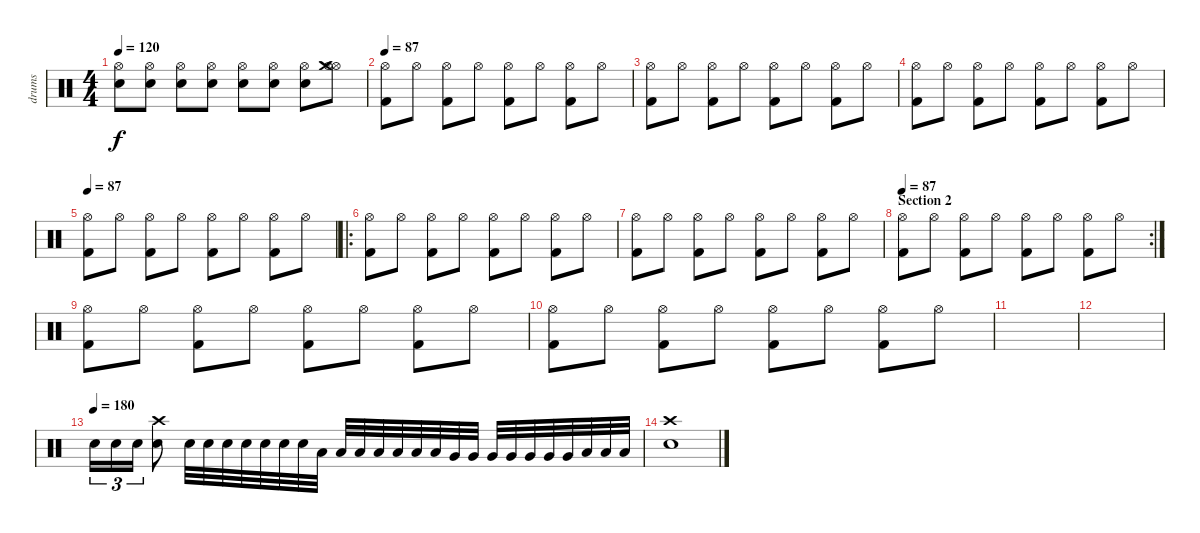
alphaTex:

\track ("drums" "drums") {instrument percussion}
\staff {score}
\articulation defaults
\ts (4 4)
\tempo 120
\clef neutral
\ks c
("Electric Snare (hit)" "Hi-Hat (open)").8{dy f volume 16} ("Electric Snare (hit)" "Hi-Hat (open)").8 ("Electric Snare (hit)" "Hi-Hat (open)").8 ("Electric Snare (hit)" "Hi-Hat (open)").8 ("Electric Snare (hit)" "Hi-Hat (open)").8 ("Electric Snare (hit)" "Hi-Hat (open)").8 ("Electric Snare (hit)" "Hi-Hat (open)").8 ("Hi-Hat (open)" "Hi-Hat (open)" "Crash medium (hit)").8 |
\tempo 87
("Hi-Hat (open)" "Kick (hit) 2").8 "Hi-Hat (open)".8 ("Hi-Hat (open)" "Kick (hit) 2").8 "Hi-Hat (open)".8 ("Hi-Hat (open)" "Kick (hit) 2").8 "Hi-Hat (open)".8 ("Hi-Hat (open)" "Kick (hit) 2").8 "Hi-Hat (open)".8 |
("Hi-Hat (open)" "Kick (hit) 2").8 "Hi-Hat (open)".8 ("Hi-Hat (open)" "Kick (hit) 2").8 "Hi-Hat (open)".8 ("Hi-Hat (open)" "Kick (hit) 2").8 "Hi-Hat (open)".8 ("Hi-Hat (open)" "Kick (hit) 2").8 "Hi-Hat (open)".8 |
("Hi-Hat (open)" "Kick (hit) 2").8 "Hi-Hat (open)".8 ("Hi-Hat (open)" "Kick (hit) 2").8 "Hi-Hat (open)".8 ("Hi-Hat (open)" "Kick (hit) 2").8 "Hi-Hat (open)".8 ("Hi-Hat (open)" "Kick (hit) 2").8 "Hi-Hat (open)".8 |
\tempo 87
("Hi-Hat (open)" "Kick (hit) 2").8 "Hi-Hat (open)".8 ("Hi-Hat (open)" "Kick (hit) 2").8 "Hi-Hat (open)".8 ("Hi-Hat (open)" "Kick (hit) 2").8 "Hi-Hat (open)".8 ("Hi-Hat (open)" "Kick (hit) 2").8 "Hi-Hat (open)".8 |
\ro
("Hi-Hat (open)" "Kick (hit) 2").8 "Hi-Hat (open)".8 ("Hi-Hat (open)" "Kick (hit) 2").8 "Hi-Hat (open)".8 ("Hi-Hat (open)" "Kick (hit) 2").8 "Hi-Hat (open)".8 ("Hi-Hat (open)" "Kick (hit) 2").8 "Hi-Hat (open)".8 |
("Hi-Hat (open)" "Kick (hit) 2").8 "Hi-Hat (open)".8 ("Hi-Hat (open)" "Kick (hit) 2").8 "Hi-Hat (open)".8 ("Hi-Hat (open)" "Kick (hit) 2").8 "Hi-Hat (open)".8 ("Hi-Hat (open)" "Kick (hit) 2").8 "Hi-Hat (open)".8 |
\rc 2
\section ("" "Section 2")
\tempo 87
("Hi-Hat (open)" "Kick (hit) 2").8 "Hi-Hat (open)".8 ("Hi-Hat (open)" "Kick (hit) 2").8 "Hi-Hat (open)".8 ("Hi-Hat (open)" "Kick (hit) 2").8 "Hi-Hat (open)".8 ("Hi-Hat (open)" "Kick (hit) 2").8 "Hi-Hat (open)".8 |
("Hi-Hat (open)" "Kick (hit) 2").8{volume 0} "Hi-Hat (open)".8 ("Hi-Hat (open)" "Kick (hit) 2").8 "Hi-Hat (open)".8 ("Hi-Hat (open)" "Kick (hit) 2").8 "Hi-Hat (open)".8 ("Hi-Hat (open)" "Kick (hit) 2").8 "Hi-Hat (open)".8 |
("Hi-Hat (open)" "Kick (hit) 2").8 "Hi-Hat (open)".8 ("Hi-Hat (open)" "Kick (hit) 2").8 "Hi-Hat (open)".8 ("Hi-Hat (open)" "Kick (hit) 2").8 "Hi-Hat (open)".8 ("Hi-Hat (open)" "Kick (hit) 2").8 "Hi-Hat (open)".8 |
|
|
\tempo (180)
"Electric Snare (hit)".16{tu (3 2) volume 16} "Electric Snare (hit)".16{tu (3 2)} "Electric Snare (hit)".16{tu (3 2)} ("Electric Snare (hit)" "Crash high (hit)").8 "Electric Snare (hit)".32 "Electric Snare (hit)".32 "Electric Snare (hit)".32 "Electric Snare (hit)".32 "Electric Snare (hit)".32 "Electric Snare (hit)".32 "Electric Snare (hit)".32 "Low Tom (hit)".32 "Low Tom (hit)".32 "Low Tom (hit)".32 "Low Tom (hit)".32 "Low Tom (hit)".32 "Low Tom (hit)".32 "Low Tom (hit)".32 "Very Low Tom (hit)".32 "Very Low Tom (hit)".32 "Very Low Tom (hit)".32 "Very Low Tom (hit)".32 "Very Low Tom (hit)".32 "Very Low Tom (hit)".32 "Very Low Tom (hit)".32 "Low Floor Tom (hit)".32 "Low Floor Tom (hit)".32 "Low Floor Tom (hit)".32 |
("Crash high (hit)" "Electric Snare (hit)").1
